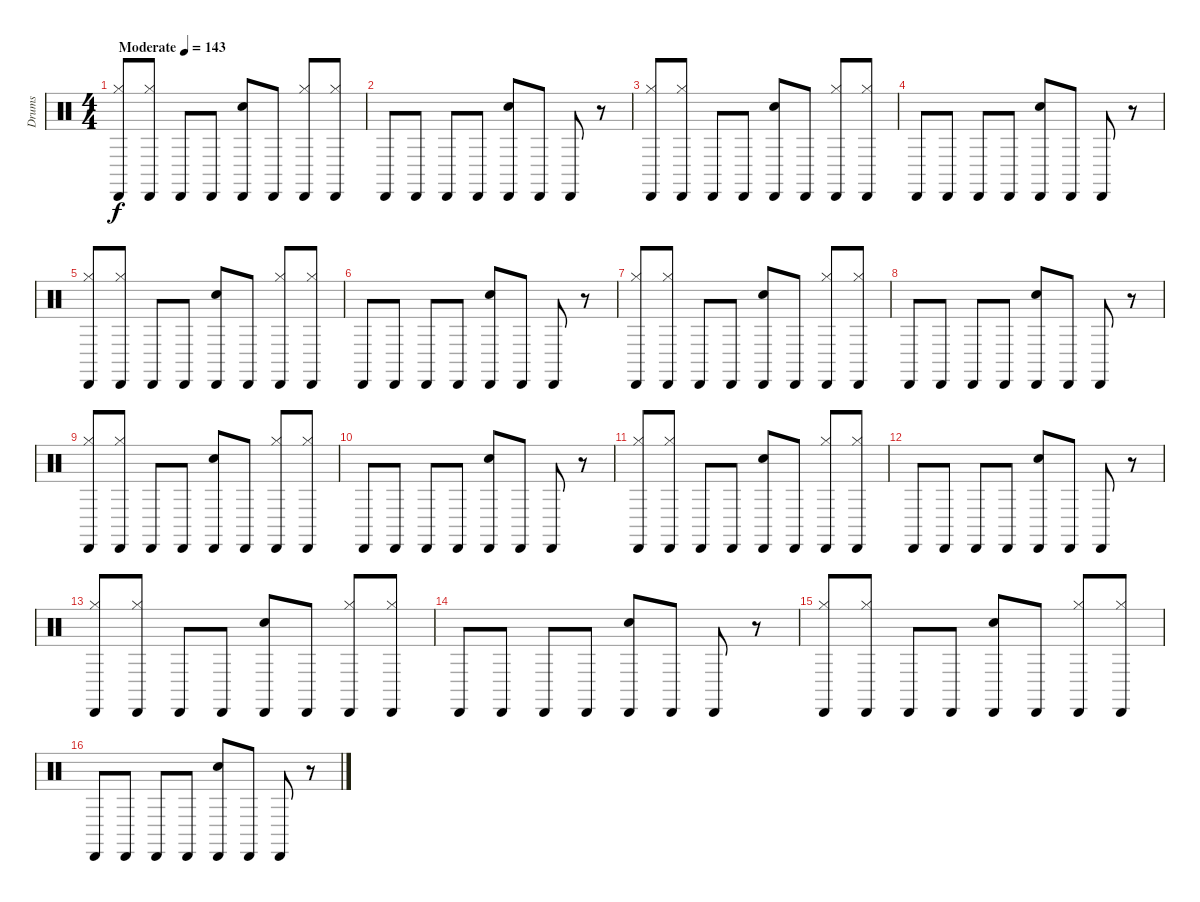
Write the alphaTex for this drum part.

\track ("Drums" "Drums") {instrument percussion}
\staff {score}
\articulation defaults
\ts (4 4)
\tempo (143 "Moderate")
\clef neutral
\ks c
("Cabasa (hit)" "Hi-Hat (closed)").8{dy f} ("Cabasa (hit)" "Hi-Hat (closed)").8 "Cabasa (hit)".8 "Cabasa (hit)".8 ("Cabasa (hit)" "Electric Snare (hit)").8 "Cabasa (hit)".8 ("Cabasa (hit)" "Hi-Hat (closed)").8 ("Cabasa (hit)" "Hi-Hat (closed)").8 |
"Cabasa (hit)".8 "Cabasa (hit)".8 "Cabasa (hit)".8 "Cabasa (hit)".8 ("Cabasa (hit)" "Electric Snare (hit)").8 "Cabasa (hit)".8 "Cabasa (hit)".8 r.8 |
("Cabasa (hit)" "Hi-Hat (closed)").8 ("Cabasa (hit)" "Hi-Hat (closed)").8 "Cabasa (hit)".8 "Cabasa (hit)".8 ("Cabasa (hit)" "Electric Snare (hit)").8 "Cabasa (hit)".8 ("Cabasa (hit)" "Hi-Hat (closed)").8 ("Cabasa (hit)" "Hi-Hat (closed)").8 |
"Cabasa (hit)".8 "Cabasa (hit)".8 "Cabasa (hit)".8 "Cabasa (hit)".8 ("Cabasa (hit)" "Electric Snare (hit)").8 "Cabasa (hit)".8 "Cabasa (hit)".8 r.8 |
("Cabasa (hit)" "Hi-Hat (closed)").8 ("Cabasa (hit)" "Hi-Hat (closed)").8 "Cabasa (hit)".8 "Cabasa (hit)".8 ("Cabasa (hit)" "Electric Snare (hit)").8 "Cabasa (hit)".8 ("Cabasa (hit)" "Hi-Hat (closed)").8 ("Cabasa (hit)" "Hi-Hat (closed)").8 |
"Cabasa (hit)".8 "Cabasa (hit)".8 "Cabasa (hit)".8 "Cabasa (hit)".8 ("Cabasa (hit)" "Electric Snare (hit)").8 "Cabasa (hit)".8 "Cabasa (hit)".8 r.8 |
("Cabasa (hit)" "Hi-Hat (closed)").8 ("Cabasa (hit)" "Hi-Hat (closed)").8 "Cabasa (hit)".8 "Cabasa (hit)".8 ("Cabasa (hit)" "Electric Snare (hit)").8 "Cabasa (hit)".8 ("Cabasa (hit)" "Hi-Hat (closed)").8 ("Cabasa (hit)" "Hi-Hat (closed)").8 |
"Cabasa (hit)".8 "Cabasa (hit)".8 "Cabasa (hit)".8 "Cabasa (hit)".8 ("Cabasa (hit)" "Electric Snare (hit)").8 "Cabasa (hit)".8 "Cabasa (hit)".8 r.8 |
("Cabasa (hit)" "Hi-Hat (closed)").8 ("Cabasa (hit)" "Hi-Hat (closed)").8 "Cabasa (hit)".8 "Cabasa (hit)".8 ("Cabasa (hit)" "Electric Snare (hit)").8 "Cabasa (hit)".8 ("Cabasa (hit)" "Hi-Hat (closed)").8 ("Cabasa (hit)" "Hi-Hat (closed)").8 |
"Cabasa (hit)".8 "Cabasa (hit)".8 "Cabasa (hit)".8 "Cabasa (hit)".8 ("Cabasa (hit)" "Electric Snare (hit)").8 "Cabasa (hit)".8 "Cabasa (hit)".8 r.8 |
("Cabasa (hit)" "Hi-Hat (closed)").8 ("Cabasa (hit)" "Hi-Hat (closed)").8 "Cabasa (hit)".8 "Cabasa (hit)".8 ("Cabasa (hit)" "Electric Snare (hit)").8 "Cabasa (hit)".8 ("Cabasa (hit)" "Hi-Hat (closed)").8 ("Cabasa (hit)" "Hi-Hat (closed)").8 |
"Cabasa (hit)".8 "Cabasa (hit)".8 "Cabasa (hit)".8 "Cabasa (hit)".8 ("Cabasa (hit)" "Electric Snare (hit)").8 "Cabasa (hit)".8 "Cabasa (hit)".8 r.8 |
("Cabasa (hit)" "Hi-Hat (closed)").8 ("Cabasa (hit)" "Hi-Hat (closed)").8 "Cabasa (hit)".8 "Cabasa (hit)".8 ("Cabasa (hit)" "Electric Snare (hit)").8 "Cabasa (hit)".8 ("Cabasa (hit)" "Hi-Hat (closed)").8 ("Cabasa (hit)" "Hi-Hat (closed)").8 |
"Cabasa (hit)".8 "Cabasa (hit)".8 "Cabasa (hit)".8 "Cabasa (hit)".8 ("Cabasa (hit)" "Electric Snare (hit)").8 "Cabasa (hit)".8 "Cabasa (hit)".8 r.8 |
("Cabasa (hit)" "Hi-Hat (closed)").8 ("Cabasa (hit)" "Hi-Hat (closed)").8 "Cabasa (hit)".8 "Cabasa (hit)".8 ("Cabasa (hit)" "Electric Snare (hit)").8 "Cabasa (hit)".8 ("Cabasa (hit)" "Hi-Hat (closed)").8 ("Cabasa (hit)" "Hi-Hat (closed)").8 |
"Cabasa (hit)".8 "Cabasa (hit)".8 "Cabasa (hit)".8 "Cabasa (hit)".8 ("Cabasa (hit)" "Electric Snare (hit)").8 "Cabasa (hit)".8 "Cabasa (hit)".8 r.8
